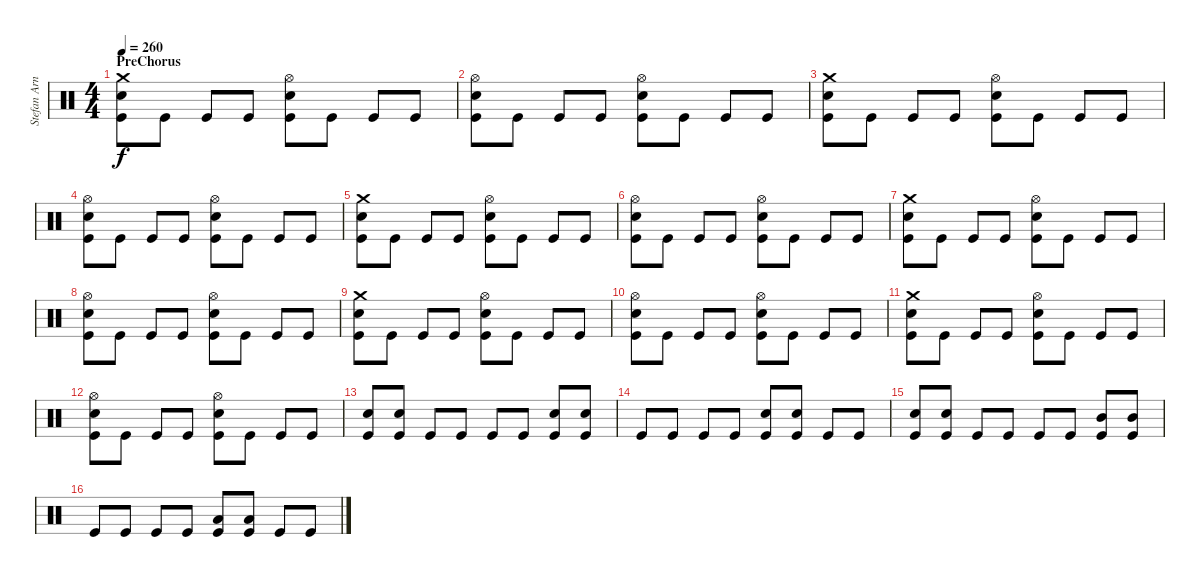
\track ("Stefan Arnold" "Stefan Arn") {instrument percussion}
\staff {score}
\articulation defaults
\ts (4 4)
\section ("" "PreChorus")
\tempo 260
\clef neutral
\ks c
("Crash medium (hit)" "Electric Snare (hit)" "Kick (hit)").8{dy f} "Kick (hit)".8 "Kick (hit)".8 "Kick (hit)".8 ("Hi-Hat (open)" "Electric Snare (hit)" "Kick (hit)").8 "Kick (hit)".8 "Kick (hit)".8 "Kick (hit)".8 |
("Hi-Hat (open)" "Electric Snare (hit)" "Kick (hit)").8 "Kick (hit)".8 "Kick (hit)".8 "Kick (hit)".8 ("Hi-Hat (open)" "Electric Snare (hit)" "Kick (hit)").8 "Kick (hit)".8 "Kick (hit)".8 "Kick (hit)".8 |
("Crash medium (hit)" "Electric Snare (hit)" "Kick (hit)").8 "Kick (hit)".8 "Kick (hit)".8 "Kick (hit)".8 ("Hi-Hat (open)" "Electric Snare (hit)" "Kick (hit)").8 "Kick (hit)".8 "Kick (hit)".8 "Kick (hit)".8 |
("Hi-Hat (open)" "Electric Snare (hit)" "Kick (hit)").8 "Kick (hit)".8 "Kick (hit)".8 "Kick (hit)".8 ("Hi-Hat (open)" "Electric Snare (hit)" "Kick (hit)").8 "Kick (hit)".8 "Kick (hit)".8 "Kick (hit)".8 |
("Crash medium (hit)" "Electric Snare (hit)" "Kick (hit)").8 "Kick (hit)".8 "Kick (hit)".8 "Kick (hit)".8 ("Hi-Hat (open)" "Electric Snare (hit)" "Kick (hit)").8 "Kick (hit)".8 "Kick (hit)".8 "Kick (hit)".8 |
("Hi-Hat (open)" "Electric Snare (hit)" "Kick (hit)").8 "Kick (hit)".8 "Kick (hit)".8 "Kick (hit)".8 ("Hi-Hat (open)" "Electric Snare (hit)" "Kick (hit)").8 "Kick (hit)".8 "Kick (hit)".8 "Kick (hit)".8 |
("Crash medium (hit)" "Electric Snare (hit)" "Kick (hit)").8 "Kick (hit)".8 "Kick (hit)".8 "Kick (hit)".8 ("Hi-Hat (open)" "Electric Snare (hit)" "Kick (hit)").8 "Kick (hit)".8 "Kick (hit)".8 "Kick (hit)".8 |
("Hi-Hat (open)" "Electric Snare (hit)" "Kick (hit)").8 "Kick (hit)".8 "Kick (hit)".8 "Kick (hit)".8 ("Hi-Hat (open)" "Electric Snare (hit)" "Kick (hit)").8 "Kick (hit)".8 "Kick (hit)".8 "Kick (hit)".8 |
("Crash medium (hit)" "Electric Snare (hit)" "Kick (hit)").8 "Kick (hit)".8 "Kick (hit)".8 "Kick (hit)".8 ("Hi-Hat (open)" "Electric Snare (hit)" "Kick (hit)").8 "Kick (hit)".8 "Kick (hit)".8 "Kick (hit)".8 |
("Hi-Hat (open)" "Electric Snare (hit)" "Kick (hit)").8 "Kick (hit)".8 "Kick (hit)".8 "Kick (hit)".8 ("Hi-Hat (open)" "Electric Snare (hit)" "Kick (hit)").8 "Kick (hit)".8 "Kick (hit)".8 "Kick (hit)".8 |
("Crash medium (hit)" "Electric Snare (hit)" "Kick (hit)").8 "Kick (hit)".8 "Kick (hit)".8 "Kick (hit)".8 ("Hi-Hat (open)" "Electric Snare (hit)" "Kick (hit)").8 "Kick (hit)".8 "Kick (hit)".8 "Kick (hit)".8 |
("Hi-Hat (open)" "Electric Snare (hit)" "Kick (hit)").8 "Kick (hit)".8 "Kick (hit)".8 "Kick (hit)".8 ("Hi-Hat (open)" "Electric Snare (hit)" "Kick (hit)").8 "Kick (hit)".8 "Kick (hit)".8 "Kick (hit)".8 |
("Electric Snare (hit)" "Kick (hit)").8 ("Electric Snare (hit)" "Kick (hit)").8 "Kick (hit)".8 "Kick (hit)".8 "Kick (hit)".8 "Kick (hit)".8 ("Electric Snare (hit)" "Kick (hit)").8 ("Electric Snare (hit)" "Kick (hit)").8 |
"Kick (hit)".8 "Kick (hit)".8 "Kick (hit)".8 "Kick (hit)".8 ("Electric Snare (hit)" "Kick (hit)").8 ("Electric Snare (hit)" "Kick (hit)").8 "Kick (hit)".8 "Kick (hit)".8 |
("Electric Snare (hit)" "Kick (hit)").8 ("Electric Snare (hit)" "Kick (hit)").8 "Kick (hit)".8 "Kick (hit)".8 "Kick (hit)".8 "Kick (hit)".8 ("Mid Tom (hit)" "Kick (hit)").8 ("Mid Tom (hit)" "Kick (hit)").8 |
"Kick (hit)".8 "Kick (hit)".8 "Kick (hit)".8 "Kick (hit)".8 ("Low Tom (hit)" "Kick (hit)").8 ("Low Tom (hit)" "Kick (hit)").8 "Kick (hit)".8 "Kick (hit)".8
